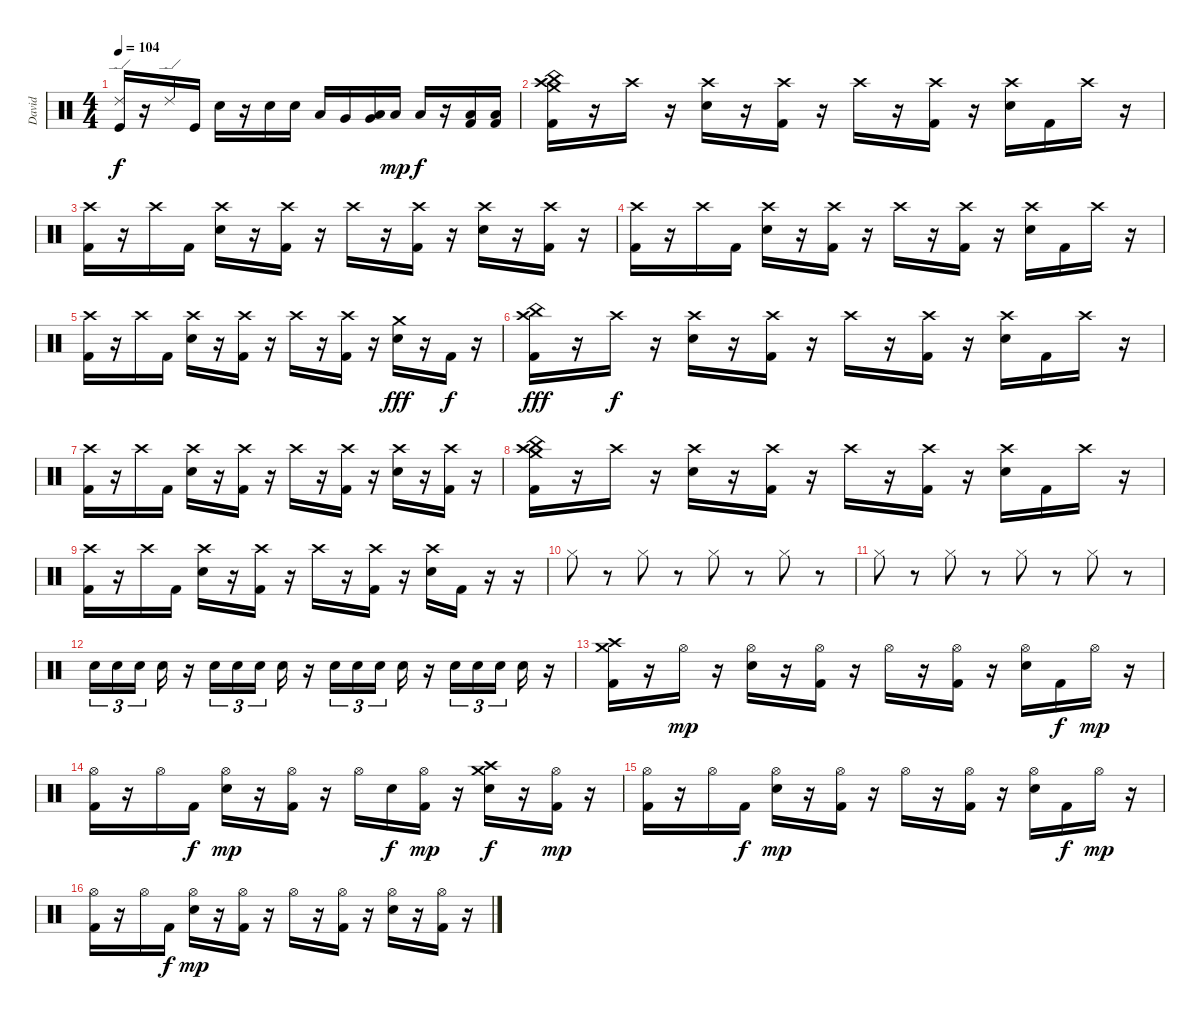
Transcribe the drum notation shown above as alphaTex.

\track ("David" "David") {instrument percussion}
\staff {score}
\articulation defaults
\ts (4 4)
\tempo 104
\clef neutral
\ks c
("Ride (edge) 2" "Kick (hit)").16{dy f} r.16 "Ride (edge) 2".16 "Kick (hit)".16 "Snare (hit) 2".16 r.16 "Snare (hit) 2".16 "Snare (hit) 2".16 "Low Floor Tom (hit)".16 "Very Low Tom (hit)".16 ("Very Low Tom (hit)" "Low Floor Tom (hit)").16 "Low Floor Tom (hit)".16{dy mp} "Low Floor Tom (hit)".16{dy f} r.16 ("Kick (hit) 2" "Low Floor Tom (hit)").16 ("Kick (hit) 2" "Low Floor Tom (hit)").16 |
("Crash medium (hit)" "Crash high (hit)" "China (hit)" "Kick (hit) 2").16 r.16 "Crash high (hit)".16 r.16 ("Crash high (hit)" "Snare (hit) 2").16 r.16 ("Crash high (hit)" "Kick (hit) 2").16 r.16 "Crash high (hit)".16 r.16 ("Crash high (hit)" "Kick (hit) 2").16 r.16 ("Crash high (hit)" "Snare (hit) 2").16 "Kick (hit) 2".16 "Crash high (hit)".16 r.16 |
("Crash high (hit)" "Kick (hit) 2").16 r.16 "Crash high (hit)".16 "Kick (hit) 2".16 ("Crash high (hit)" "Snare (hit) 2").16 r.16 ("Crash high (hit)" "Kick (hit) 2").16 r.16 "Crash high (hit)".16 r.16 ("Crash high (hit)" "Kick (hit) 2").16 r.16 ("Crash high (hit)" "Snare (hit) 2").16 r.16 ("Crash high (hit)" "Kick (hit) 2").16 r.16 |
("Crash high (hit)" "Kick (hit) 2").16 r.16 "Crash high (hit)".16 "Kick (hit) 2".16 ("Crash high (hit)" "Snare (hit) 2").16 r.16 ("Crash high (hit)" "Kick (hit) 2").16 r.16 "Crash high (hit)".16 r.16 ("Crash high (hit)" "Kick (hit) 2").16 r.16 ("Crash high (hit)" "Snare (hit) 2").16 "Kick (hit) 2".16 "Crash high (hit)".16 r.16 |
("Crash high (hit)" "Kick (hit) 2").16 r.16 "Crash high (hit)".16 "Kick (hit) 2".16 ("Crash high (hit)" "Snare (hit) 2").16 r.16 ("Crash high (hit)" "Kick (hit) 2").16 r.16 "Crash high (hit)".16 r.16 ("Crash high (hit)" "Kick (hit) 2").16 r.16 ("Crash medium (hit)" "Snare (hit) 2").16{dy fff} r.16 "Kick (hit) 2".16{dy f} r.16 |
("Crash high (hit)" "China (hit)" "Kick (hit) 2").16{dy fff} r.16 "Crash high (hit)".16{dy f} r.16 ("Crash high (hit)" "Snare (hit) 2").16 r.16 ("Crash high (hit)" "Kick (hit) 2").16 r.16 "Crash high (hit)".16 r.16 ("Crash high (hit)" "Kick (hit) 2").16 r.16 ("Crash high (hit)" "Snare (hit) 2").16 "Kick (hit) 2".16 "Crash high (hit)".16 r.16 |
("Crash high (hit)" "Kick (hit) 2").16 r.16 "Crash high (hit)".16 "Kick (hit) 2".16 ("Crash high (hit)" "Snare (hit) 2").16 r.16 ("Crash high (hit)" "Kick (hit) 2").16 r.16 "Crash high (hit)".16 r.16 ("Crash high (hit)" "Kick (hit) 2").16 r.16 ("Crash high (hit)" "Snare (hit) 2").16 r.16 ("Crash high (hit)" "Kick (hit) 2").16 r.16 |
("Crash medium (hit)" "Crash high (hit)" "China (hit)" "Kick (hit) 2").16 r.16 "Crash high (hit)".16 r.16 ("Crash high (hit)" "Snare (hit) 2").16 r.16 ("Crash high (hit)" "Kick (hit) 2").16 r.16 "Crash high (hit)".16 r.16 ("Crash high (hit)" "Kick (hit) 2").16 r.16 ("Crash high (hit)" "Snare (hit) 2").16 "Kick (hit) 2".16 "Crash high (hit)".16 r.16 |
("Crash high (hit)" "Kick (hit) 2").16 r.16 "Crash high (hit)".16 "Kick (hit) 2".16 ("Crash high (hit)" "Snare (hit) 2").16 r.16 ("Crash high (hit)" "Kick (hit) 2").16 r.16 "Crash high (hit)".16 r.16 ("Crash high (hit)" "Kick (hit) 2").16 r.16 ("Crash high (hit)" "Snare (hit) 2").16 "Kick (hit) 2".16 r.16 r.16 |
"Hi-Hat (closed)".8 r.8 "Hi-Hat (closed)".8 r.8 "Hi-Hat (closed)".8 r.8 "Hi-Hat (closed)".8 r.8 |
"Hi-Hat (closed)".8 r.8 "Hi-Hat (closed)".8 r.8 "Hi-Hat (closed)".8 r.8 "Hi-Hat (closed)".8 r.8 |
"Snare (hit) 2".16{tu (3 2)} "Snare (hit) 2".16{tu (3 2)} "Snare (hit) 2".16{tu (3 2)} "Snare (hit) 2".16 r.16 "Snare (hit) 2".16{tu (3 2)} "Snare (hit) 2".16{tu (3 2)} "Snare (hit) 2".16{tu (3 2)} "Snare (hit) 2".16 r.16 "Snare (hit) 2".16{tu (3 2)} "Snare (hit) 2".16{tu (3 2)} "Snare (hit) 2".16{tu (3 2)} "Snare (hit) 2".16 r.16 "Snare (hit) 2".16{tu (3 2)} "Snare (hit) 2".16{tu (3 2)} "Snare (hit) 2".16{tu (3 2)} "Snare (hit) 2".16 r.16 |
("Crash medium (hit)" "Crash high (hit)" "Kick (hit) 2").16 r.16 "Hi-Hat (open)".16{dy mp} r.16 ("Hi-Hat (open)" "Snare (hit) 2").16 r.16 ("Hi-Hat (open)" "Kick (hit) 2").16 r.16 "Hi-Hat (open)".16 r.16 ("Hi-Hat (open)" "Kick (hit) 2").16 r.16 ("Hi-Hat (open)" "Snare (hit) 2").16 "Kick (hit) 2".16{dy f} "Hi-Hat (open)".16{dy mp} r.16 |
("Hi-Hat (open)" "Kick (hit) 2").16 r.16 "Hi-Hat (open)".16 "Kick (hit) 2".16{dy f} ("Hi-Hat (open)" "Snare (hit) 2").16{dy mp} r.16 ("Hi-Hat (open)" "Kick (hit) 2").16 r.16 "Hi-Hat (open)".16 "Snare (hit) 2".16{dy f} ("Hi-Hat (open)" "Kick (hit) 2").16{dy mp} r.16 ("Crash medium (hit)" "Crash high (hit)" "Snare (hit) 2").16{dy f} r.16 ("Hi-Hat (open)" "Kick (hit) 2").16{dy mp} r.16 |
("Hi-Hat (open)" "Kick (hit) 2").16 r.16 "Hi-Hat (open)".16 "Kick (hit) 2".16{dy f} ("Hi-Hat (open)" "Snare (hit) 2").16{dy mp} r.16 ("Hi-Hat (open)" "Kick (hit) 2").16 r.16 "Hi-Hat (open)".16 r.16 ("Hi-Hat (open)" "Kick (hit) 2").16 r.16 ("Hi-Hat (open)" "Snare (hit) 2").16 "Kick (hit) 2".16{dy f} "Hi-Hat (open)".16{dy mp} r.16 |
("Hi-Hat (open)" "Kick (hit) 2").16 r.16 "Hi-Hat (open)".16 "Kick (hit) 2".16{dy f} ("Hi-Hat (open)" "Snare (hit) 2").16{dy mp} r.16 ("Hi-Hat (open)" "Kick (hit) 2").16 r.16 "Hi-Hat (open)".16 r.16 ("Hi-Hat (open)" "Kick (hit) 2").16 r.16 ("Hi-Hat (open)" "Snare (hit) 2").16 r.16 ("Hi-Hat (open)" "Kick (hit) 2").16 r.16
